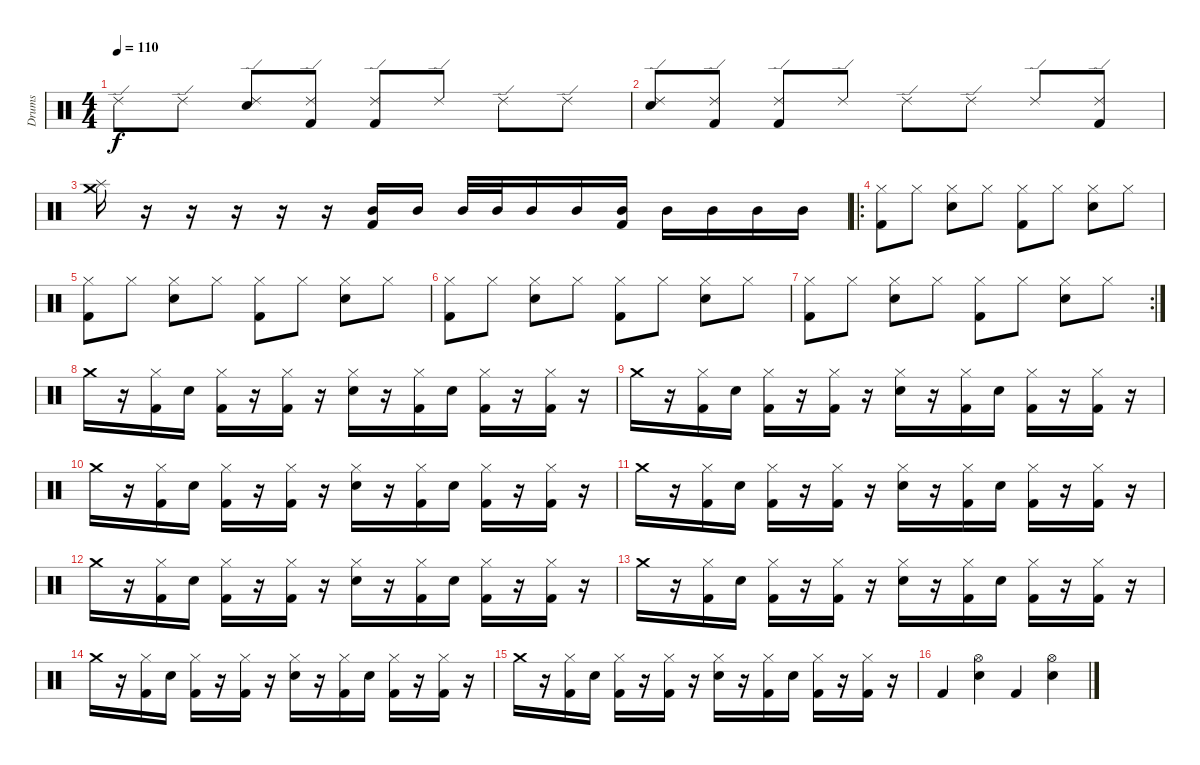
\track ("Drums" "Drums") {instrument percussion}
\staff {score}
\articulation defaults
\ts (4 4)
\tempo 110
\clef neutral
\ks c "Ride (edge) 2".8{dy f} "Ride (edge) 2".8
("Ride (edge) 2" "Electric Snare (hit)").8 ("Kick (hit) 2" "Ride (edge) 2").8 ("Kick (hit) 2" "Ride (edge) 2").8 "Ride (edge) 2".8 "Ride (edge) 2".8 "Ride (edge) 2".8 |
("Ride (edge) 2" "Electric Snare (hit)").8 ("Kick (hit) 2" "Ride (edge) 2").8 ("Kick (hit) 2" "Ride (edge) 2").8 "Ride (edge) 2".8 "Ride (edge) 2".8 "Ride (edge) 2".8 "Ride (edge) 2".8 ("Kick (hit) 2" "Ride (edge) 2").8 |
("Splash (hit)" "Crash medium (hit)").16 r.16 r.16 r.16 r.16 r.16 ("Kick (hit) 2" "Mid Tom (hit)").16 "Mid Tom (hit)".16 "Mid Tom (hit)".32 "Mid Tom (hit)".32 "Mid Tom (hit)".16 "Mid Tom (hit)".16 ("Kick (hit) 2" "Mid Tom (hit)").16 "Mid Tom (hit)".16 "Mid Tom (hit)".16 "Mid Tom (hit)".16 "Mid Tom (hit)".16 |
\ro
("Kick (hit) 2" "Hi-Hat (closed)").8 "Hi-Hat (closed)".8 ("Electric Snare (hit)" "Hi-Hat (closed)").8 "Hi-Hat (closed)".8 ("Kick (hit) 2" "Hi-Hat (closed)").8 "Hi-Hat (closed)".8 ("Electric Snare (hit)" "Hi-Hat (closed)").8 "Hi-Hat (closed)".8 |
("Kick (hit) 2" "Hi-Hat (closed)").8 "Hi-Hat (closed)".8 ("Electric Snare (hit)" "Hi-Hat (closed)").8 "Hi-Hat (closed)".8 ("Kick (hit) 2" "Hi-Hat (closed)").8 "Hi-Hat (closed)".8 ("Electric Snare (hit)" "Hi-Hat (closed)").8 "Hi-Hat (closed)".8 |
("Kick (hit) 2" "Hi-Hat (closed)").8 "Hi-Hat (closed)".8 ("Electric Snare (hit)" "Hi-Hat (closed)").8 "Hi-Hat (closed)".8 ("Kick (hit) 2" "Hi-Hat (closed)").8 "Hi-Hat (closed)".8 ("Electric Snare (hit)" "Hi-Hat (closed)").8 "Hi-Hat (closed)".8 |
\rc 2
("Kick (hit) 2" "Hi-Hat (closed)").8 "Hi-Hat (closed)".8 ("Electric Snare (hit)" "Hi-Hat (closed)").8 "Hi-Hat (closed)".8 ("Kick (hit) 2" "Hi-Hat (closed)").8 "Hi-Hat (closed)".8 ("Electric Snare (hit)" "Hi-Hat (closed)").8 "Hi-Hat (closed)".8 |
"Crash medium (hit)".16 r.16 ("Kick (hit) 2" "Hi-Hat (closed)").16 "Electric Snare (hit)".16 ("Kick (hit) 2" "Hi-Hat (closed)").16 r.16 ("Kick (hit) 2" "Hi-Hat (closed)").16 r.16 ("Hi-Hat (closed)" "Electric Snare (hit)").16 r.16 ("Kick (hit) 2" "Hi-Hat (closed)").16 "Electric Snare (hit)".16 ("Kick (hit) 2" "Hi-Hat (closed)").16 r.16 ("Kick (hit) 2" "Hi-Hat (closed)").16 r.16 |
"Crash medium (hit)".16 r.16 ("Kick (hit) 2" "Hi-Hat (closed)").16 "Electric Snare (hit)".16 ("Kick (hit) 2" "Hi-Hat (closed)").16 r.16 ("Kick (hit) 2" "Hi-Hat (closed)").16 r.16 ("Hi-Hat (closed)" "Electric Snare (hit)").16 r.16 ("Kick (hit) 2" "Hi-Hat (closed)").16 "Electric Snare (hit)".16 ("Kick (hit) 2" "Hi-Hat (closed)").16 r.16 ("Kick (hit) 2" "Hi-Hat (closed)").16 r.16 |
"Crash medium (hit)".16 r.16 ("Kick (hit) 2" "Hi-Hat (closed)").16 "Electric Snare (hit)".16 ("Kick (hit) 2" "Hi-Hat (closed)").16 r.16 ("Kick (hit) 2" "Hi-Hat (closed)").16 r.16 ("Hi-Hat (closed)" "Electric Snare (hit)").16 r.16 ("Kick (hit) 2" "Hi-Hat (closed)").16 "Electric Snare (hit)".16 ("Kick (hit) 2" "Hi-Hat (closed)").16 r.16 ("Kick (hit) 2" "Hi-Hat (closed)").16 r.16 |
"Crash medium (hit)".16 r.16 ("Kick (hit) 2" "Hi-Hat (closed)").16 "Electric Snare (hit)".16 ("Kick (hit) 2" "Hi-Hat (closed)").16 r.16 ("Kick (hit) 2" "Hi-Hat (closed)").16 r.16 ("Hi-Hat (closed)" "Electric Snare (hit)").16 r.16 ("Kick (hit) 2" "Hi-Hat (closed)").16 "Electric Snare (hit)".16 ("Kick (hit) 2" "Hi-Hat (closed)").16 r.16 ("Kick (hit) 2" "Hi-Hat (closed)").16 r.16 |
"Crash medium (hit)".16 r.16 ("Kick (hit) 2" "Hi-Hat (closed)").16 "Electric Snare (hit)".16 ("Kick (hit) 2" "Hi-Hat (closed)").16 r.16 ("Kick (hit) 2" "Hi-Hat (closed)").16 r.16 ("Hi-Hat (closed)" "Electric Snare (hit)").16 r.16 ("Kick (hit) 2" "Hi-Hat (closed)").16 "Electric Snare (hit)".16 ("Kick (hit) 2" "Hi-Hat (closed)").16 r.16 ("Kick (hit) 2" "Hi-Hat (closed)").16 r.16 |
"Crash medium (hit)".16 r.16 ("Kick (hit) 2" "Hi-Hat (closed)").16 "Electric Snare (hit)".16 ("Kick (hit) 2" "Hi-Hat (closed)").16 r.16 ("Kick (hit) 2" "Hi-Hat (closed)").16 r.16 ("Hi-Hat (closed)" "Electric Snare (hit)").16 r.16 ("Kick (hit) 2" "Hi-Hat (closed)").16 "Electric Snare (hit)".16 ("Kick (hit) 2" "Hi-Hat (closed)").16 r.16 ("Kick (hit) 2" "Hi-Hat (closed)").16 r.16 |
"Crash medium (hit)".16 r.16 ("Kick (hit) 2" "Hi-Hat (closed)").16 "Electric Snare (hit)".16 ("Kick (hit) 2" "Hi-Hat (closed)").16 r.16 ("Kick (hit) 2" "Hi-Hat (closed)").16 r.16 ("Hi-Hat (closed)" "Electric Snare (hit)").16 r.16 ("Kick (hit) 2" "Hi-Hat (closed)").16 "Electric Snare (hit)".16 ("Kick (hit) 2" "Hi-Hat (closed)").16 r.16 ("Kick (hit) 2" "Hi-Hat (closed)").16 r.16 |
"Crash medium (hit)".16 r.16 ("Kick (hit) 2" "Hi-Hat (closed)").16 "Electric Snare (hit)".16 ("Kick (hit) 2" "Hi-Hat (closed)").16 r.16 ("Kick (hit) 2" "Hi-Hat (closed)").16 r.16 ("Hi-Hat (closed)" "Electric Snare (hit)").16 r.16 ("Kick (hit) 2" "Hi-Hat (closed)").16 "Electric Snare (hit)".16 ("Kick (hit) 2" "Hi-Hat (closed)").16 r.16 ("Kick (hit) 2" "Hi-Hat (closed)").16 r.16 |
"Kick (hit) 2".4 ("Hi-Hat (open)" "Electric Snare (hit)").4 "Kick (hit) 2".4 ("Hi-Hat (open)" "Electric Snare (hit)").4
